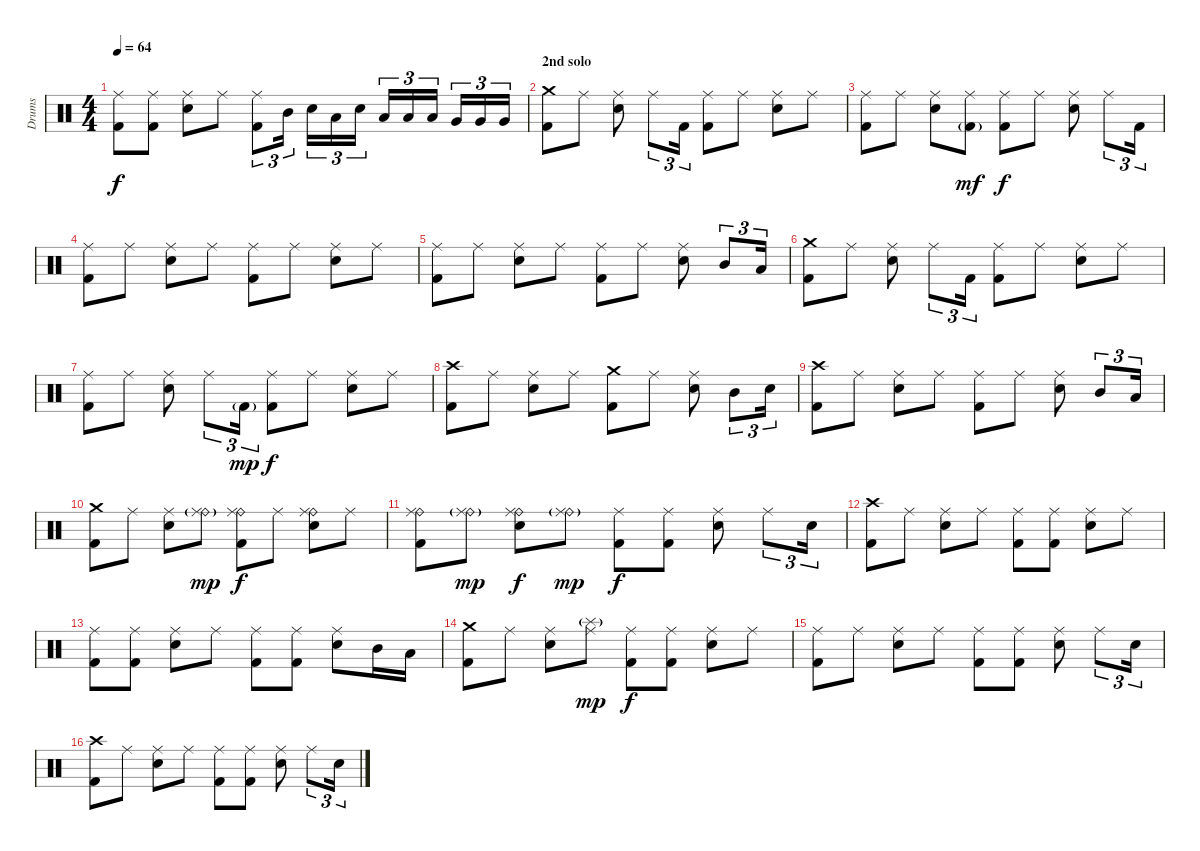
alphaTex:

\track ("Drums" "Drums") {instrument percussion}
\staff {score}
\articulation defaults
\ts (4 4)
\tempo 64
\clef neutral
\ks c
("Ride (middle)" "Kick (hit) 2").8{dy f} ("Ride (middle)" "Kick (hit) 2").8 ("Ride (middle)" "Electric Snare (hit)").8 "Ride (middle)".8 ("Ride (middle)" "Kick (hit) 2").8{tu (3 2)} "Mid Tom (hit)".16{tu (3 2)} "Electric Snare (hit)".16{tu (3 2)} "Low Tom (hit)".16{tu (3 2)} "Electric Snare (hit)".16{tu (3 2)} "Low Tom (hit)".16{tu (3 2)} "Low Tom (hit)".16{tu (3 2)} "Low Tom (hit)".16{tu (3 2)} "Very Low Tom (hit)".16{tu (3 2)} "Very Low Tom (hit)".16{tu (3 2)} "Very Low Tom (hit)".16{tu (3 2)} |
\section ("" "2nd solo")
("Crash medium (hit)" "Kick (hit) 2").8 "Ride (middle)".8 ("Ride (middle)" "Electric Snare (hit)").8 "Ride (middle)".8{tu (3 2)} "Kick (hit) 2".16{tu (3 2)} ("Ride (middle)" "Kick (hit) 2").8 "Ride (middle)".8 ("Ride (middle)" "Electric Snare (hit)").8 "Ride (middle)".8 |
("Ride (middle)" "Kick (hit) 2").8 "Ride (middle)".8 ("Ride (middle)" "Electric Snare (hit)").8 ("Ride (middle)" "Kick (hit) 2"{g}).8{dy mf} ("Ride (middle)" "Kick (hit) 2").8{dy f} "Ride (middle)".8 ("Ride (middle)" "Electric Snare (hit)").8 "Ride (middle)".8{tu (3 2)} "Kick (hit) 2".16{tu (3 2)} |
("Ride (middle)" "Kick (hit) 2").8 "Ride (middle)".8 ("Ride (middle)" "Electric Snare (hit)").8 "Ride (middle)".8 ("Ride (middle)" "Kick (hit) 2").8 "Ride (middle)".8 ("Ride (middle)" "Electric Snare (hit)").8 "Ride (middle)".8 |
("Ride (middle)" "Kick (hit) 2").8 "Ride (middle)".8 ("Ride (middle)" "Electric Snare (hit)").8 "Ride (middle)".8 ("Ride (middle)" "Kick (hit) 2").8 "Ride (middle)".8 ("Ride (middle)" "Electric Snare (hit)").8 "Mid Tom (hit)".8{tu (3 2)} "Low Tom (hit)".16{tu (3 2)} |
("Crash medium (hit)" "Kick (hit) 2").8 "Ride (middle)".8 ("Ride (middle)" "Electric Snare (hit)").8 "Ride (middle)".8{tu (3 2)} "Kick (hit) 2".16{tu (3 2)} ("Ride (middle)" "Kick (hit) 2").8 "Ride (middle)".8 ("Ride (middle)" "Electric Snare (hit)").8 "Ride (middle)".8 |
("Ride (middle)" "Kick (hit) 2").8 "Ride (middle)".8 ("Ride (middle)" "Electric Snare (hit)").8 "Ride (middle)".8{tu (3 2)} "Kick (hit) 2"{g}.16{tu (3 2) dy mp} ("Ride (middle)" "Kick (hit) 2").8{dy f} "Ride (middle)".8 ("Ride (middle)" "Electric Snare (hit)").8 "Ride (middle)".8 |
("Crash high (hit)" "Kick (hit) 2").8 "Ride (middle)".8 ("Ride (middle)" "Electric Snare (hit)").8 "Ride (middle)".8 ("Crash medium (hit)" "Kick (hit) 2").8 "Ride (middle)".8 ("Ride (middle)" "Electric Snare (hit)").8 "Mid Tom (hit)".8{tu (3 2)} "Electric Snare (hit)".16{tu (3 2)} |
("Crash high (hit)" "Kick (hit) 2").8 "Ride (middle)".8 ("Ride (middle)" "Electric Snare (hit)").8 "Ride (middle)".8 ("Ride (middle)" "Kick (hit) 2").8 "Ride (middle)".8 ("Ride (middle)" "Electric Snare (hit)").8 "Mid Tom (hit)".8{tu (3 2)} "Low Tom (hit)".16{tu (3 2)} |
("Crash medium (hit)" "Kick (hit) 2").8 "Ride (middle)".8 ("Ride (middle)" "Electric Snare (hit)").8 ("Ride (bell)"{g} "Ride (middle)").8{dy mp} ("Ride (bell)" "Ride (middle)" "Kick (hit) 2").8{dy f} "Ride (middle)".8 ("Ride (bell)" "Ride (middle)" "Electric Snare (hit)").8 "Ride (middle)".8 |
("Ride (bell)" "Ride (middle)" "Kick (hit) 2").8 ("Ride (bell)"{g} "Ride (middle)").8{dy mp} ("Ride (bell)" "Ride (middle)" "Electric Snare (hit)").8{dy f} ("Ride (bell)"{g} "Ride (middle)").8{dy mp} ("Ride (middle)" "Kick (hit) 2").8{dy f} ("Ride (middle)" "Kick (hit) 2").8 ("Ride (middle)" "Electric Snare (hit)").8 "Ride (middle)".8{tu (3 2)} "Electric Snare (hit)".16{tu (3 2)} |
("Crash high (hit)" "Kick (hit) 2").8 "Ride (middle)".8 ("Ride (middle)" "Electric Snare (hit)").8 "Ride (middle)".8 ("Ride (middle)" "Kick (hit) 2").8 ("Ride (middle)" "Kick (hit) 2").8 ("Ride (middle)" "Electric Snare (hit)").8 "Ride (middle)".8 |
("Ride (middle)" "Kick (hit) 2").8 ("Ride (middle)" "Kick (hit) 2").8 ("Ride (middle)" "Electric Snare (hit)").8 "Ride (middle)".8 ("Ride (middle)" "Kick (hit) 2").8 ("Ride (middle)" "Kick (hit) 2").8 ("Ride (middle)" "Electric Snare (hit)").8 "Mid Tom (hit)".16 "Low Tom (hit)".16 |
("Crash medium (hit)" "Kick (hit) 2").8 "Ride (middle)".8 ("Ride (middle)" "Electric Snare (hit)").8 ("Splash (hit)"{g} "Ride (middle)").8{dy mp} ("Ride (middle)" "Kick (hit) 2").8{dy f} ("Ride (middle)" "Kick (hit) 2").8 ("Ride (middle)" "Electric Snare (hit)").8 "Ride (middle)".8 |
("Ride (middle)" "Kick (hit) 2").8 "Ride (middle)".8 ("Ride (middle)" "Electric Snare (hit)").8 "Ride (middle)".8 ("Ride (middle)" "Kick (hit) 2").8 ("Ride (middle)" "Kick (hit) 2").8 ("Ride (middle)" "Electric Snare (hit)").8 "Ride (middle)".8{tu (3 2)} "Electric Snare (hit)".16{tu (3 2)} |
("Crash high (hit)" "Kick (hit) 2").8 "Ride (middle)".8 ("Ride (middle)" "Electric Snare (hit)").8 "Ride (middle)".8 ("Ride (middle)" "Kick (hit) 2").8 ("Ride (middle)" "Kick (hit) 2").8 ("Ride (middle)" "Electric Snare (hit)").8 "Ride (middle)".8{tu (3 2)} "Electric Snare (hit)".16{tu (3 2)}
